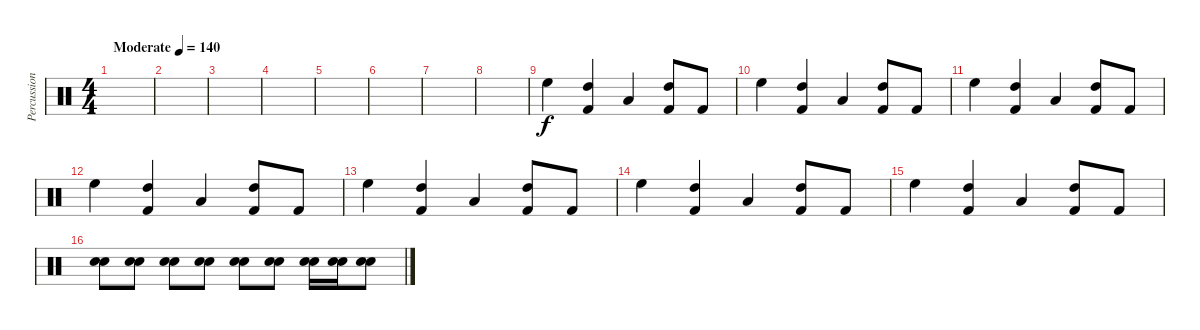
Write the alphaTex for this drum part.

\track ("Percussion" "Percussion") {instrument percussion}
\staff {score}
\articulation defaults
\ts (4 4)
\tempo (140 "Moderate")
\clef neutral
\ks c
|
|
|
|
|
|
|
|
"High Floor Tom (hit)".4 ("High Tom (hit)" "Kick (hit) 2").4 "Low Tom (hit)".4 ("High Tom (hit)" "Kick (hit) 2").8 "Kick (hit) 2".8 |
"High Floor Tom (hit)".4 ("High Tom (hit)" "Kick (hit) 2").4 "Low Tom (hit)".4 ("High Tom (hit)" "Kick (hit) 2").8 "Kick (hit) 2".8 |
"High Floor Tom (hit)".4 ("High Tom (hit)" "Kick (hit) 2").4 "Low Tom (hit)".4 ("High Tom (hit)" "Kick (hit) 2").8 "Kick (hit) 2".8 |
"High Floor Tom (hit)".4 ("High Tom (hit)" "Kick (hit) 2").4 "Low Tom (hit)".4 ("High Tom (hit)" "Kick (hit) 2").8 "Kick (hit) 2".8 |
"High Floor Tom (hit)".4 ("High Tom (hit)" "Kick (hit) 2").4 "Low Tom (hit)".4 ("High Tom (hit)" "Kick (hit) 2").8 "Kick (hit) 2".8 |
"High Floor Tom (hit)".4 ("High Tom (hit)" "Kick (hit) 2").4 "Low Tom (hit)".4 ("High Tom (hit)" "Kick (hit) 2").8 "Kick (hit) 2".8 |
"High Floor Tom (hit)".4 ("High Tom (hit)" "Kick (hit) 2").4 "Low Tom (hit)".4 ("High Tom (hit)" "Kick (hit) 2").8 "Kick (hit) 2".8 |
("Electric Snare (hit)" "Snare (hit) 2").8 ("Electric Snare (hit)" "Snare (hit) 2").8 ("Electric Snare (hit)" "Snare (hit) 2").8 ("Electric Snare (hit)" "Snare (hit) 2").8 ("Electric Snare (hit)" "Snare (hit) 2").8 ("Electric Snare (hit)" "Snare (hit) 2").8 ("Electric Snare (hit)" "Snare (hit) 2").16 ("Electric Snare (hit)" "Snare (hit) 2").16 ("Electric Snare (hit)" "Snare (hit) 2").8
